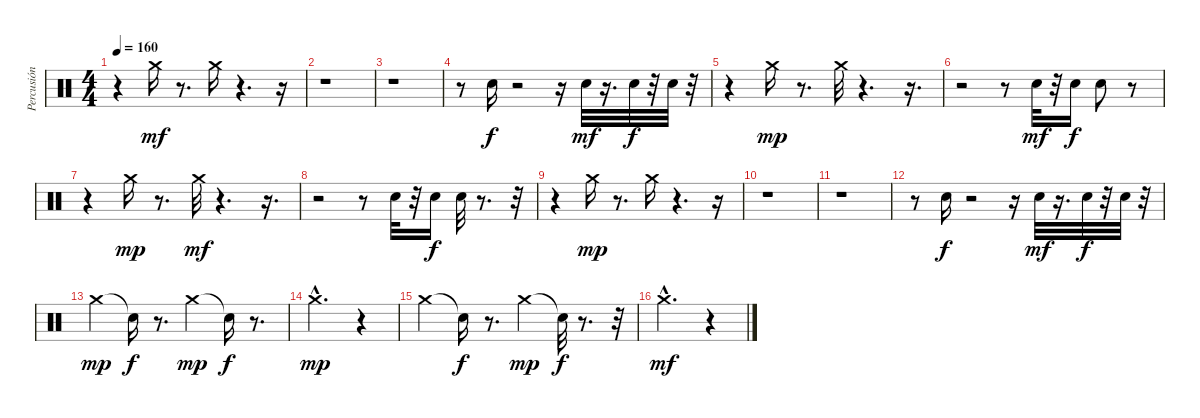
\track ("Percusión" "Percusión") {instrument percussion}
\staff {score}
\articulation defaults
\ts (4 4)
\tempo 160
\clef neutral
\ks c
r.4{dy f} "Crash medium (hit)".16{dy mf} r.8{d} "Crash medium (hit)".16 r.4{d} r.16 |
r.1 |
r.1 |
r.8 "Electric Snare (hit)".16{dy f} r.2 r.16 "Electric Snare (hit)".32{dy mf} r.16{d} "Electric Snare (hit)".32{dy f} r.32 "Electric Snare (hit)".32 r.32 |
r.4 "Crash medium (hit)".16{dy mp} r.8{d} "Crash medium (hit)".32 r.4{d} r.16{d} |
r.2 r.8 "Electric Snare (hit)".32{dy mf} r.32 "Electric Snare (hit)".16{dy f} "Electric Snare (hit)".8 r.8 |
r.4 "Crash medium (hit)".16{dy mp} r.8{d} "Crash medium (hit)".32{dy mf} r.4{d} r.16{d} |
r.2 r.8 "Electric Snare (hit)".32 r.32 "Electric Snare (hit)".16{dy f} "Electric Snare (hit)".32 r.8{d} r.32 |
r.4 "Crash medium (hit)".16{dy mp} r.8{d} "Crash medium (hit)".16 r.4{d} r.16 |
r.1 |
r.1 |
r.8 "Electric Snare (hit)".16{dy f} r.2 r.16 "Electric Snare (hit)".32{dy mf} r.16{d} "Electric Snare (hit)".32{dy f} r.32 "Electric Snare (hit)".32 r.32 |
"Crash medium (hit)".4{dy mp} "Snare (hit)"{t}.16{dy f} r.8{d} "Crash medium (hit)".4{dy mp} "Snare (hit)"{t}.16{dy f} r.8{d} |
"Crash medium (hit)"{hac}.2{d dy mp} r.4 |
"Crash medium (hit)".4 "Snare (hit)"{t}.16{dy f} r.8{d} "Crash medium (hit)".4{dy mp} "Snare (hit)"{t}.32{dy f} r.8{d} r.32 |
"Crash medium (hit)"{hac}.2{d dy mf} r.4
